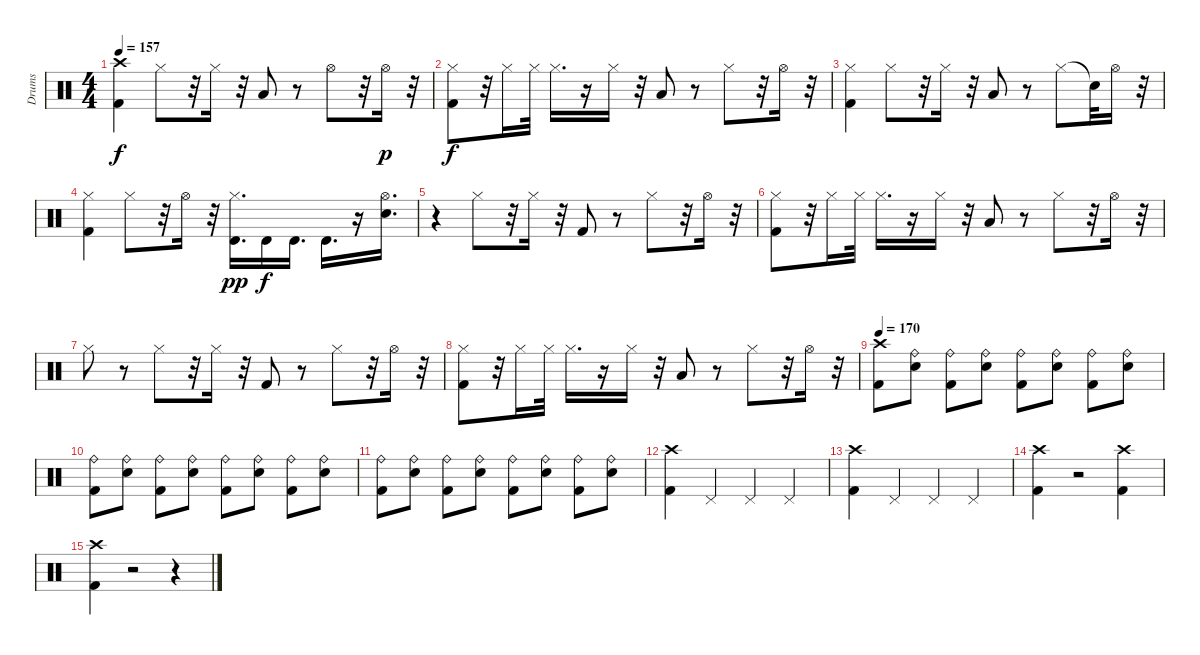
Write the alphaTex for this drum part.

\track (" Drums" " Drums") {instrument percussion}
\staff {score}
\articulation defaults
\ts (4 4)
\tempo 157
\tempo 130
\tempo 157
\clef neutral
\ks c
("Kick (hit) 2" "Crash high (hit)").4{dy f} "Hi-Hat (closed)".8 r.32 "Hi-Hat (closed)".16 r.32 "Low Tom (hit)".8 r.8 "Hi-Hat (open)".8 r.32 "Hi-Hat (open)".16{dy p} r.32 |
("Kick (hit) 2" "Hi-Hat (closed)").8{dy f} r.32 "Hi-Hat (closed)".16 "Hi-Hat (closed)".32 "Hi-Hat (closed)".16{d} r.16 "Hi-Hat (closed)".16 r.32 "Low Tom (hit)".8 r.8 "Hi-Hat (closed)".8 r.32 "Hi-Hat (open)".16 r.32 |
("Kick (hit) 2" "Hi-Hat (closed)").4 "Hi-Hat (closed)".8 r.32 "Hi-Hat (closed)".16 r.32 "Low Tom (hit)".8 r.8 "Hi-Hat (closed)".8 "Snare (hit)"{t}.32 "Hi-Hat (open)".16 r.32 |
("Hi-Hat (closed)" "Kick (hit) 2").4 "Hi-Hat (closed)".8 r.32 "Hi-Hat (open)".16 r.32 ("Hi-Hat (closed)" "Timbale high (hit)").16{d dy pp} "Timbale high (hit)".16{dy f} "Timbale high (hit)".16{d} "Timbale high (hit)".16{d} r.16 ("Electric Snare (hit)" "Hi-Hat (open)").16{d} |
r.4 "Hi-Hat (closed)".8 r.32 "Hi-Hat (closed)".16 r.32 "Kick (hit) 2".8 r.8 "Hi-Hat (closed)".8 r.32 "Hi-Hat (open)".16 r.32 |
("Hi-Hat (closed)" "Kick (hit) 2").8 r.32 "Hi-Hat (closed)".16 "Hi-Hat (closed)".32 "Hi-Hat (closed)".16{d} r.16 "Hi-Hat (closed)".16 r.32 "Low Tom (hit)".8 r.8 "Hi-Hat (closed)".8 r.32 "Hi-Hat (open)".16 r.32 |
"Hi-Hat (closed)".8 r.8 "Hi-Hat (closed)".8 r.32 "Hi-Hat (closed)".16 r.32 "Kick (hit) 2".8 r.8 "Hi-Hat (closed)".8 r.32 "Hi-Hat (open)".16 r.32 |
("Kick (hit) 2" "Hi-Hat (closed)").8 r.32 "Hi-Hat (closed)".16 "Hi-Hat (closed)".32 "Hi-Hat (closed)".16{d} r.16 "Hi-Hat (closed)".16 r.32 "Low Tom (hit)".8 r.8 "Hi-Hat (closed)".8 r.32 "Hi-Hat (open)".16 r.32 |
\tempo 170
("Kick (hit) 2" "Crash high (hit)").8 ("Electric Snare (hit)" "Ride (bell)").8 ("Kick (hit) 2" "Ride (bell)").8 ("Electric Snare (hit)" "Ride (bell)").8 ("Kick (hit) 2" "Ride (bell)").8 ("Electric Snare (hit)" "Ride (bell)").8 ("Kick (hit) 2" "Ride (bell)").8 ("Electric Snare (hit)" "Ride (bell)").8 |
("Kick (hit) 2" "Ride (bell)").8 ("Electric Snare (hit)" "Ride (bell)").8 ("Kick (hit) 2" "Ride (bell)").8 ("Electric Snare (hit)" "Ride (bell)").8 ("Kick (hit) 2" "Ride (bell)").8 ("Electric Snare (hit)" "Ride (bell)").8 ("Kick (hit) 2" "Ride (bell)").8 ("Electric Snare (hit)" "Ride (bell)").8 |
("Kick (hit) 2" "Ride (bell)").8 ("Electric Snare (hit)" "Ride (bell)").8 ("Kick (hit) 2" "Ride (bell)").8 ("Electric Snare (hit)" "Ride (bell)").8 ("Kick (hit) 2" "Ride (bell)").8 ("Electric Snare (hit)" "Ride (bell)").8 ("Kick (hit) 2" "Ride (bell)").8 ("Electric Snare (hit)" "Ride (bell)").8 |
("Kick (hit) 2" "Crash high (hit)").4 "Pedal Hi-Hat (hit)".4 "Pedal Hi-Hat (hit)".4 "Pedal Hi-Hat (hit)".4 |
("Crash high (hit)" "Kick (hit) 2").4 "Pedal Hi-Hat (hit)".4 "Pedal Hi-Hat (hit)".4 "Pedal Hi-Hat (hit)".4 |
("Crash high (hit)" "Kick (hit) 2").4 r.2 ("Kick (hit) 2" "Crash high (hit)").4 |
("Crash high (hit)" "Kick (hit) 2").4 r.2 r.4
